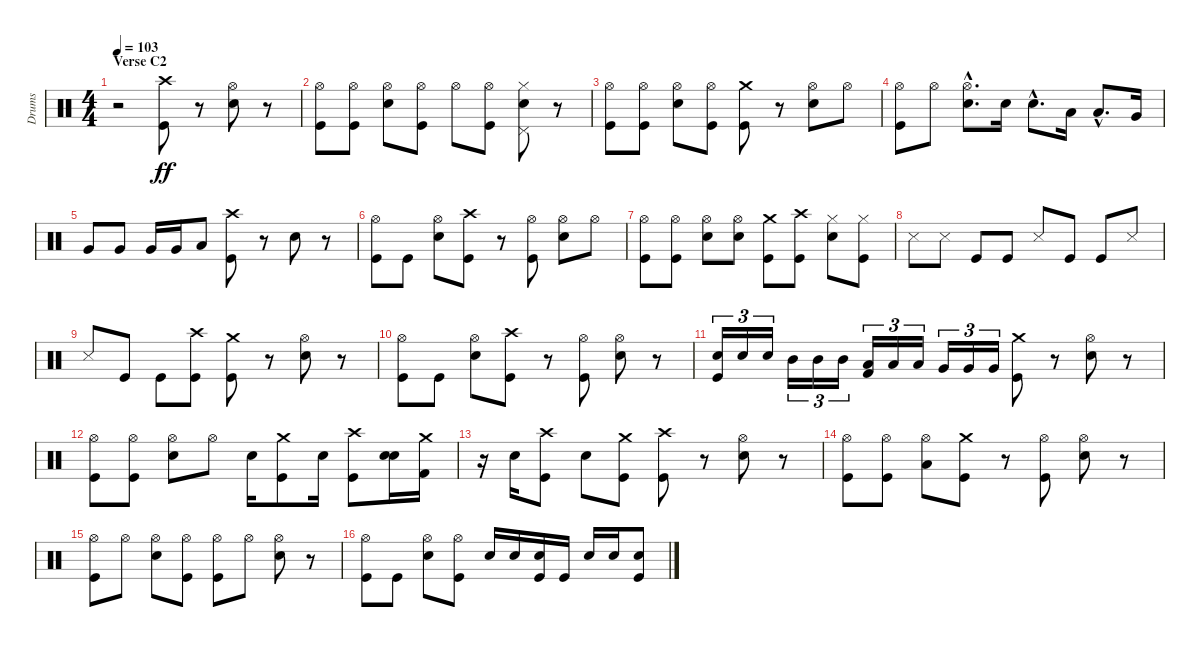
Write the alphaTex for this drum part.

\track ("Drums" "Drums") {instrument percussion}
\staff {score}
\articulation defaults
\ts (4 4)
\section ("" "Verse C2")
\tempo 103
\clef neutral
\ks c
r.2{dy ff} ("Crash high (hit)" "Kick (hit)").8 r.8 ("Hi-Hat (open)" "Electric Snare (hit)").8 r.8 |
("Hi-Hat (open)" "Kick (hit)").8 ("Hi-Hat (open)" "Kick (hit)").8 ("Hi-Hat (open)" "Electric Snare (hit)").8 ("Hi-Hat (open)" "Kick (hit)").8 "Hi-Hat (open)".8 ("Hi-Hat (open)" "Kick (hit)").8 ("Pedal Hi-Hat (hit)" "Hi-Hat (closed)" "Electric Snare (hit)").8 r.8 |
("Hi-Hat (open)" "Kick (hit)").8 ("Hi-Hat (open)" "Kick (hit)").8 ("Hi-Hat (open)" "Electric Snare (hit)").8 ("Hi-Hat (open)" "Kick (hit)").8 ("Crash medium (hit)" "Kick (hit)").8 r.8 ("Hi-Hat (open)" "Electric Snare (hit)").8 "Hi-Hat (open)".8 |
("Hi-Hat (open)" "Kick (hit)").8 "Hi-Hat (open)".8 ("Hi-Hat (open)"{hac} "Electric Snare (hit)"{hac}).8{d} "Electric Snare (hit)".16 "Electric Snare (hit)"{hac}.8{d} "Low Tom (hit)".16 "Low Tom (hit)"{hac}.8{d} "Very Low Tom (hit)".16 |
"Very Low Tom (hit)".8 "Very Low Tom (hit)".8 "Very Low Tom (hit)".16 "Very Low Tom (hit)".16 "Low Floor Tom (hit)".8 ("Crash high (hit)" "Kick (hit)").8 r.8 "Electric Snare (hit)".8 r.8 |
("Hi-Hat (open)" "Kick (hit)").8 "Kick (hit)".8 ("Hi-Hat (open)" "Electric Snare (hit)").8 ("Crash high (hit)" "Kick (hit)").8 r.8 ("Hi-Hat (open)" "Kick (hit)").8 ("Hi-Hat (open)" "Electric Snare (hit)").8 "Hi-Hat (open)".8 |
("Hi-Hat (open)" "Kick (hit)").8 ("Hi-Hat (open)" "Kick (hit)").8 ("Hi-Hat (open)" "Electric Snare (hit)").8 ("Hi-Hat (open)" "Electric Snare (hit)").8 ("Crash medium (hit)" "Kick (hit)").8 ("Crash high (hit)" "Kick (hit)").8 ("Hi-Hat (closed)" "Electric Snare (hit)").8 ("Hi-Hat (closed)" "Kick (hit)").8 |
"Snare (side stick) 3".8 "Snare (side stick) 3".8 "Kick (hit)".8 "Kick (hit)".8 "Snare (side stick) 3".8 "Kick (hit)".8 "Kick (hit)".8 "Snare (side stick) 3".8 |
"Snare (side stick) 3".8 "Kick (hit)".8 "Kick (hit)".8 ("Crash high (hit)" "Kick (hit)").8 ("Crash medium (hit)" "Kick (hit)").8 r.8 ("Hi-Hat (open)" "Electric Snare (hit)").8 r.8 |
("Hi-Hat (open)" "Kick (hit)").8 "Kick (hit)".8 ("Hi-Hat (open)" "Electric Snare (hit)").8 ("Crash high (hit)" "Kick (hit)").8 r.8 ("Hi-Hat (open)" "Kick (hit)").8 ("Hi-Hat (open)" "Electric Snare (hit)").8 r.8 |
("Electric Snare (hit)" "Kick (hit)").16{tu (3 2)} "Electric Snare (hit)".16{tu (3 2)} "Electric Snare (hit)".16{tu (3 2)} "Mid Tom (hit)".16{tu (3 2)} "Mid Tom (hit)".16{tu (3 2)} "Mid Tom (hit)".16{tu (3 2)} ("Low Tom (hit)" "Kick (hit) 2").16{tu (3 2)} "Low Tom (hit)".16{tu (3 2)} "Low Tom (hit)".16{tu (3 2)} "Very Low Tom (hit)".16{tu (3 2)} "Very Low Tom (hit)".16{tu (3 2)} "Very Low Tom (hit)".16{tu (3 2)} ("Crash medium (hit)" "Kick (hit)").8 r.8 ("Hi-Hat (open)" "Electric Snare (hit)").8 r.8 |
("Hi-Hat (open)" "Kick (hit)").8 ("Hi-Hat (open)" "Kick (hit)").8 ("Hi-Hat (open)" "Electric Snare (hit)").8 "Hi-Hat (open)".8 "Electric Snare (hit)".16 ("Crash medium (hit)" "Kick (hit)").8 "Electric Snare (hit)".16 ("Crash high (hit)" "Kick (hit)").8 ("Electric Snare (hit)" "Electric Snare (hit)").16 ("Crash medium (hit)" "Kick (hit) 2").16 |
r.16 "Electric Snare (hit)".16 ("Crash high (hit)" "Kick (hit)").8 "Electric Snare (hit)".8 ("Crash medium (hit)" "Kick (hit)").8 ("Crash high (hit)" "Kick (hit)").8 r.8 ("Hi-Hat (open)" "Electric Snare (hit)").8 r.8 |
("Hi-Hat (open)" "Kick (hit)").8 ("Hi-Hat (open)" "Kick (hit)").8 ("Hi-Hat (open)" "Low Floor Tom (hit)").8 ("Crash medium (hit)" "Kick (hit)").8 r.8 ("Hi-Hat (open)" "Kick (hit)").8 ("Hi-Hat (open)" "Electric Snare (hit)").8 r.8 |
("Hi-Hat (open)" "Kick (hit)").8 "Hi-Hat (open)".8 ("Hi-Hat (open)" "Electric Snare (hit)").8 ("Hi-Hat (open)" "Kick (hit)").8 ("Hi-Hat (open)" "Kick (hit)").8 "Hi-Hat (open)".8 ("Hi-Hat (open)" "Electric Snare (hit)").8 r.8 |
("Hi-Hat (open)" "Kick (hit)").8 "Kick (hit)".8 ("Hi-Hat (open)" "Electric Snare (hit)").8 ("Hi-Hat (open)" "Kick (hit)").8 "Electric Snare (hit)".16 "Electric Snare (hit)".16 ("Electric Snare (hit)" "Kick (hit)").16 "Kick (hit)".16 "Electric Snare (hit)".16 "Electric Snare (hit)".16 ("Electric Snare (hit)" "Kick (hit)").8
